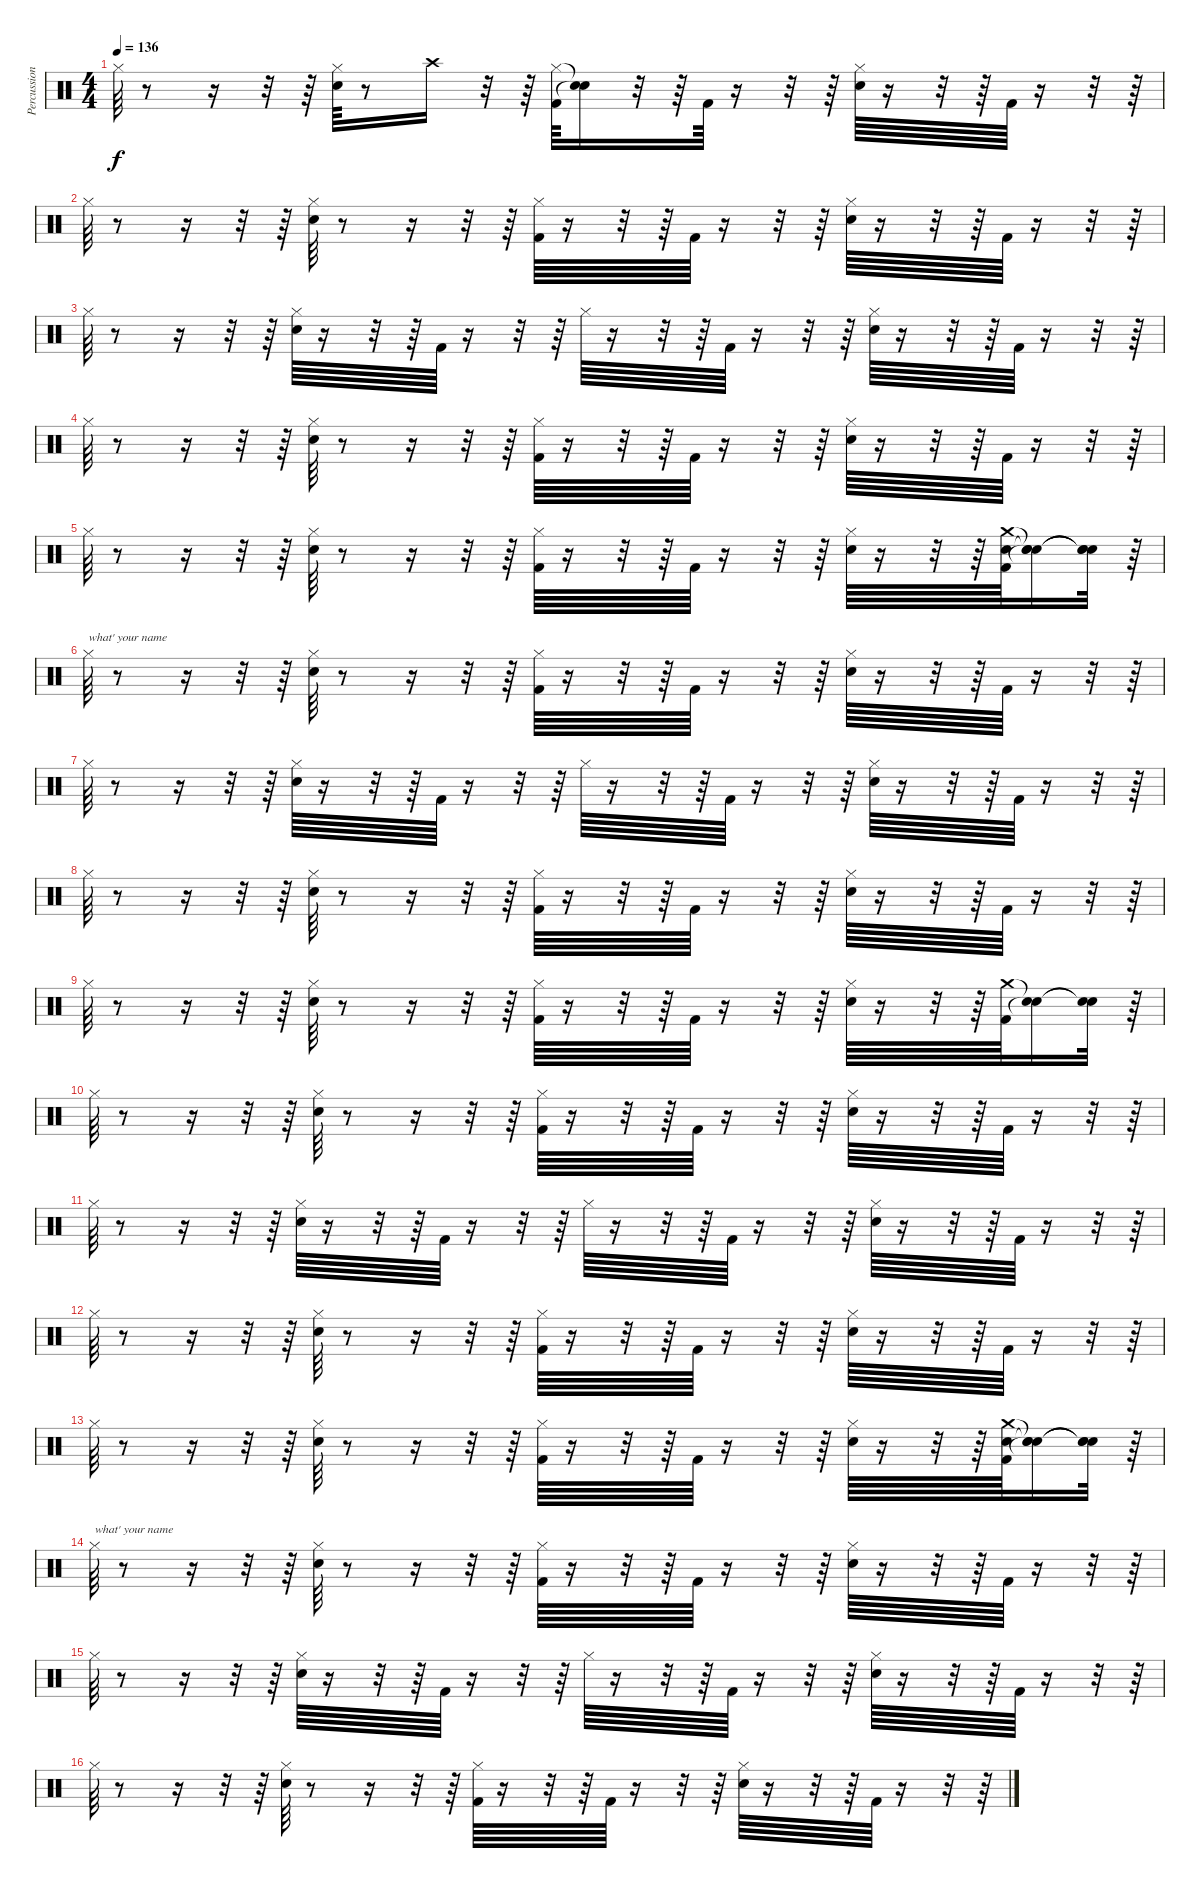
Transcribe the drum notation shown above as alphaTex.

\track ("Percussions" "Percussion") {instrument percussion}
\staff {score}
\articulation defaults
\ts (4 4)
\tempo 136
\clef neutral
\ks c "Hi-Hat (closed)".64{dy f}
r.8 r.16 r.32 r.64 ("Snare (hit) 2" "Hi-Hat (closed)").64 r.8 "Crash high (hit)".16 r.32 r.64 ("Kick (hit) 2" "Hi-Hat (closed)").64 ("Snare (hit)"{t} "Snare (hit)"{t}).16 r.32 r.64 "Kick (hit) 2".64 r.16 r.32 r.64 ("Snare (hit) 2" "Hi-Hat (closed)").64 r.16 r.32 r.64 "Kick (hit) 2".64 r.16 r.32 r.64 |
"Hi-Hat (closed)".64 r.8 r.16 r.32 r.64 ("Snare (hit) 2" "Hi-Hat (closed)").64 r.8 r.16 r.32 r.64 ("Kick (hit) 2" "Hi-Hat (closed)").64 r.16 r.32 r.64 "Kick (hit) 2".64 r.16 r.32 r.64 ("Snare (hit) 2" "Hi-Hat (closed)").64 r.16 r.32 r.64 "Kick (hit) 2".64 r.16 r.32 r.64 |
"Hi-Hat (closed)".64 r.8 r.16 r.32 r.64 ("Snare (hit) 2" "Hi-Hat (closed)").64 r.16 r.32 r.64 "Kick (hit) 2".64 r.16 r.32 r.64 "Hi-Hat (closed)".64 r.16 r.32 r.64 "Kick (hit) 2".64 r.16 r.32 r.64 ("Snare (hit) 2" "Hi-Hat (closed)").64 r.16 r.32 r.64 "Kick (hit) 2".64 r.16 r.32 r.64 |
"Hi-Hat (closed)".64 r.8 r.16 r.32 r.64 ("Snare (hit) 2" "Hi-Hat (closed)").64 r.8 r.16 r.32 r.64 ("Kick (hit) 2" "Hi-Hat (closed)").64 r.16 r.32 r.64 "Kick (hit) 2".64 r.16 r.32 r.64 ("Snare (hit) 2" "Hi-Hat (closed)").64 r.16 r.32 r.64 "Kick (hit) 2".64 r.16 r.32 r.64 |
"Hi-Hat (closed)".64 r.8 r.16 r.32 r.64 ("Snare (hit) 2" "Hi-Hat (closed)").64 r.8 r.16 r.32 r.64 ("Kick (hit) 2" "Hi-Hat (closed)").64 r.16 r.32 r.64 "Kick (hit) 2".64 r.16 r.32 r.64 ("Snare (hit) 2" "Hi-Hat (closed)").64 r.16 r.32 r.64 ("Kick (hit) 2" "Snare (hit) 2" "Crash medium (hit)").64 ("Snare (hit)"{t} "Snare (hit)"{t} "Snare (hit)"{t}).16 ("Snare (hit)"{t} "Snare (hit)"{t} "Snare (hit)"{t}).32 r.64 |
"Hi-Hat (closed)".64{txt "what' your name"} r.8 r.16 r.32 r.64 ("Snare (hit) 2" "Hi-Hat (closed)").64 r.8 r.16 r.32 r.64 ("Kick (hit) 2" "Hi-Hat (closed)").64 r.16 r.32 r.64 "Kick (hit) 2".64 r.16 r.32 r.64 ("Snare (hit) 2" "Hi-Hat (closed)").64 r.16 r.32 r.64 "Kick (hit) 2".64 r.16 r.32 r.64 |
"Hi-Hat (closed)".64 r.8 r.16 r.32 r.64 ("Snare (hit) 2" "Hi-Hat (closed)").64 r.16 r.32 r.64 "Kick (hit) 2".64 r.16 r.32 r.64 "Hi-Hat (closed)".64 r.16 r.32 r.64 "Kick (hit) 2".64 r.16 r.32 r.64 ("Snare (hit) 2" "Hi-Hat (closed)").64 r.16 r.32 r.64 "Kick (hit) 2".64 r.16 r.32 r.64 |
"Hi-Hat (closed)".64 r.8 r.16 r.32 r.64 ("Snare (hit) 2" "Hi-Hat (closed)").64 r.8 r.16 r.32 r.64 ("Kick (hit) 2" "Hi-Hat (closed)").64 r.16 r.32 r.64 "Kick (hit) 2".64 r.16 r.32 r.64 ("Snare (hit) 2" "Hi-Hat (closed)").64 r.16 r.32 r.64 "Kick (hit) 2".64 r.16 r.32 r.64 |
"Hi-Hat (closed)".64 r.8 r.16 r.32 r.64 ("Snare (hit) 2" "Hi-Hat (closed)").64 r.8 r.16 r.32 r.64 ("Kick (hit) 2" "Hi-Hat (closed)").64 r.16 r.32 r.64 "Kick (hit) 2".64 r.16 r.32 r.64 ("Snare (hit) 2" "Hi-Hat (closed)").64 r.16 r.32 r.64 ("Kick (hit) 2" "Crash medium (hit)").64 ("Snare (hit)"{t} "Snare (hit)"{t}).16 ("Snare (hit)"{t} "Snare (hit)"{t}).32 r.64 |
"Hi-Hat (closed)".64 r.8 r.16 r.32 r.64 ("Snare (hit) 2" "Hi-Hat (closed)").64 r.8 r.16 r.32 r.64 ("Kick (hit) 2" "Hi-Hat (closed)").64 r.16 r.32 r.64 "Kick (hit) 2".64 r.16 r.32 r.64 ("Snare (hit) 2" "Hi-Hat (closed)").64 r.16 r.32 r.64 "Kick (hit) 2".64 r.16 r.32 r.64 |
"Hi-Hat (closed)".64 r.8 r.16 r.32 r.64 ("Snare (hit) 2" "Hi-Hat (closed)").64 r.16 r.32 r.64 "Kick (hit) 2".64 r.16 r.32 r.64 "Hi-Hat (closed)".64 r.16 r.32 r.64 "Kick (hit) 2".64 r.16 r.32 r.64 ("Snare (hit) 2" "Hi-Hat (closed)").64 r.16 r.32 r.64 "Kick (hit) 2".64 r.16 r.32 r.64 |
"Hi-Hat (closed)".64 r.8 r.16 r.32 r.64 ("Snare (hit) 2" "Hi-Hat (closed)").64 r.8 r.16 r.32 r.64 ("Kick (hit) 2" "Hi-Hat (closed)").64 r.16 r.32 r.64 "Kick (hit) 2".64 r.16 r.32 r.64 ("Snare (hit) 2" "Hi-Hat (closed)").64 r.16 r.32 r.64 "Kick (hit) 2".64 r.16 r.32 r.64 |
"Hi-Hat (closed)".64 r.8 r.16 r.32 r.64 ("Snare (hit) 2" "Hi-Hat (closed)").64 r.8 r.16 r.32 r.64 ("Kick (hit) 2" "Hi-Hat (closed)").64 r.16 r.32 r.64 "Kick (hit) 2".64 r.16 r.32 r.64 ("Snare (hit) 2" "Hi-Hat (closed)").64 r.16 r.32 r.64 ("Kick (hit) 2" "Snare (hit) 2" "Crash medium (hit)").64 ("Snare (hit)"{t} "Snare (hit)"{t} "Snare (hit)"{t}).16 ("Snare (hit)"{t} "Snare (hit)"{t} "Snare (hit)"{t}).32 r.64 |
"Hi-Hat (closed)".64{txt "what' your name"} r.8 r.16 r.32 r.64 ("Snare (hit) 2" "Hi-Hat (closed)").64 r.8 r.16 r.32 r.64 ("Kick (hit) 2" "Hi-Hat (closed)").64 r.16 r.32 r.64 "Kick (hit) 2".64 r.16 r.32 r.64 ("Snare (hit) 2" "Hi-Hat (closed)").64 r.16 r.32 r.64 "Kick (hit) 2".64 r.16 r.32 r.64 |
"Hi-Hat (closed)".64 r.8 r.16 r.32 r.64 ("Snare (hit) 2" "Hi-Hat (closed)").64 r.16 r.32 r.64 "Kick (hit) 2".64 r.16 r.32 r.64 "Hi-Hat (closed)".64 r.16 r.32 r.64 "Kick (hit) 2".64 r.16 r.32 r.64 ("Snare (hit) 2" "Hi-Hat (closed)").64 r.16 r.32 r.64 "Kick (hit) 2".64 r.16 r.32 r.64 |
"Hi-Hat (closed)".64 r.8 r.16 r.32 r.64 ("Snare (hit) 2" "Hi-Hat (closed)").64 r.8 r.16 r.32 r.64 ("Kick (hit) 2" "Hi-Hat (closed)").64 r.16 r.32 r.64 "Kick (hit) 2".64 r.16 r.32 r.64 ("Snare (hit) 2" "Hi-Hat (closed)").64 r.16 r.32 r.64 "Kick (hit) 2".64 r.16 r.32 r.64
